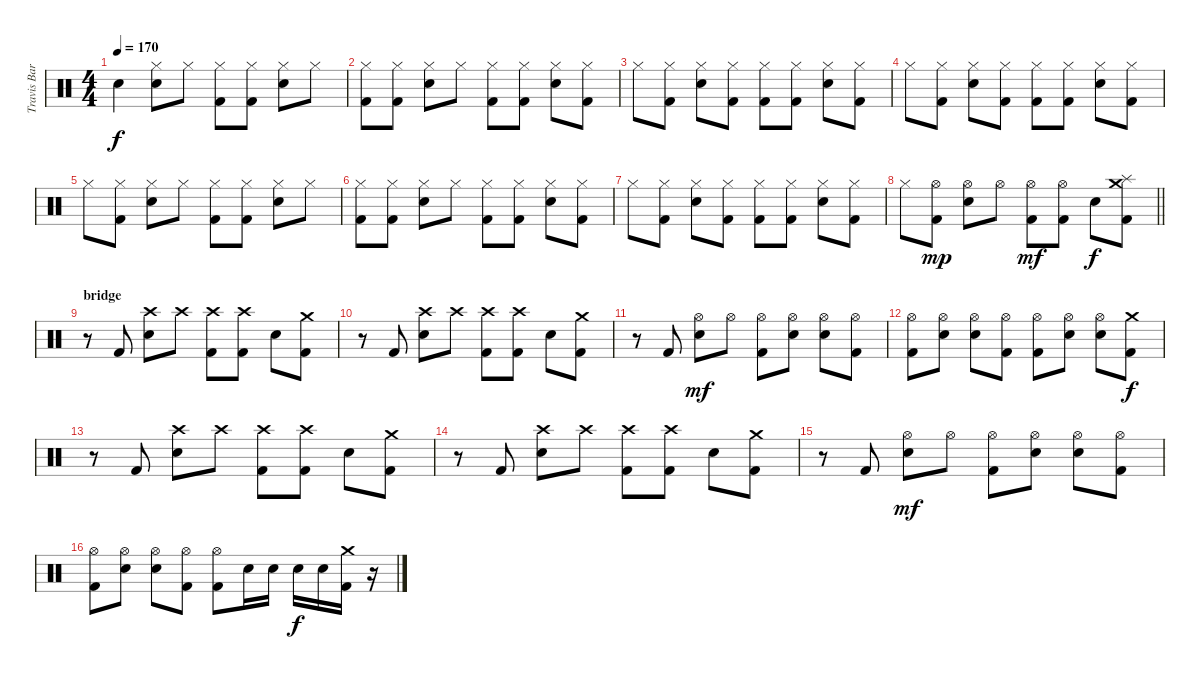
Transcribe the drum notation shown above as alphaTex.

\track ("Travis Barker" "Travis Bar") {instrument percussion}
\staff {score}
\articulation defaults
\ts (4 4)
\tempo 170
\clef neutral
\ks c "Snare (hit)"{t}.4{dy f}
("Hi-Hat (closed)" "Electric Snare (hit)").8 "Hi-Hat (closed)".8 ("Hi-Hat (closed)" "Kick (hit) 2").8 ("Hi-Hat (closed)" "Kick (hit) 2").8 ("Hi-Hat (closed)" "Electric Snare (hit)").8 "Hi-Hat (closed)".8 |
("Hi-Hat (closed)" "Kick (hit) 2").8 ("Hi-Hat (closed)" "Kick (hit) 2").8 ("Hi-Hat (closed)" "Electric Snare (hit)").8 "Hi-Hat (closed)".8 ("Hi-Hat (closed)" "Kick (hit) 2").8 ("Hi-Hat (closed)" "Kick (hit) 2").8 ("Hi-Hat (closed)" "Electric Snare (hit)").8 ("Hi-Hat (closed)" "Kick (hit) 2").8 |
"Hi-Hat (closed)".8 ("Hi-Hat (closed)" "Kick (hit) 2").8 ("Hi-Hat (closed)" "Electric Snare (hit)").8 ("Hi-Hat (closed)" "Kick (hit) 2").8 ("Hi-Hat (closed)" "Kick (hit) 2").8 ("Hi-Hat (closed)" "Kick (hit) 2").8 ("Hi-Hat (closed)" "Electric Snare (hit)").8 ("Hi-Hat (closed)" "Kick (hit) 2").8 |
"Hi-Hat (closed)".8 ("Hi-Hat (closed)" "Kick (hit) 2").8 ("Hi-Hat (closed)" "Electric Snare (hit)").8 ("Hi-Hat (closed)" "Kick (hit) 2").8 ("Hi-Hat (closed)" "Kick (hit) 2").8 ("Hi-Hat (closed)" "Kick (hit) 2").8 ("Hi-Hat (closed)" "Electric Snare (hit)").8 ("Hi-Hat (closed)" "Kick (hit) 2").8 |
"Hi-Hat (closed)".8 ("Hi-Hat (closed)" "Kick (hit) 2").8 ("Hi-Hat (closed)" "Electric Snare (hit)").8 "Hi-Hat (closed)".8 ("Hi-Hat (closed)" "Kick (hit) 2").8 ("Hi-Hat (closed)" "Kick (hit) 2").8 ("Hi-Hat (closed)" "Electric Snare (hit)").8 "Hi-Hat (closed)".8 |
("Hi-Hat (closed)" "Kick (hit) 2").8 ("Hi-Hat (closed)" "Kick (hit) 2").8 ("Hi-Hat (closed)" "Electric Snare (hit)").8 "Hi-Hat (closed)".8 ("Hi-Hat (closed)" "Kick (hit) 2").8 ("Hi-Hat (closed)" "Kick (hit) 2").8 ("Hi-Hat (closed)" "Electric Snare (hit)").8 ("Hi-Hat (closed)" "Kick (hit) 2").8 |
"Hi-Hat (closed)".8 ("Hi-Hat (closed)" "Kick (hit) 2").8 ("Hi-Hat (closed)" "Electric Snare (hit)").8 ("Hi-Hat (closed)" "Kick (hit) 2").8 ("Hi-Hat (closed)" "Kick (hit) 2").8 ("Hi-Hat (closed)" "Kick (hit) 2").8 ("Hi-Hat (closed)" "Electric Snare (hit)").8 ("Hi-Hat (closed)" "Kick (hit) 2").8 |
\barLineRight lightlight "Hi-Hat (closed)".8
("Hi-Hat (open)" "Kick (hit) 2").8{dy mp} ("Hi-Hat (open)" "Electric Snare (hit)").8 "Hi-Hat (open)".8 ("Hi-Hat (open)" "Kick (hit) 2").8{dy mf} ("Hi-Hat (open)" "Kick (hit) 2").8 "Electric Snare (hit)".8{dy f} ("Crash medium (hit)" "Kick (hit) 2" "Splash (hit)").8 |
\section ("" "bridge")
r.8 "Kick (hit) 2".8 ("Crash high (hit)" "Electric Snare (hit)").8 "Crash high (hit)".8 ("Crash high (hit)" "Kick (hit) 2").8 ("Crash high (hit)" "Kick (hit) 2").8 "Electric Snare (hit)".8 ("Crash medium (hit)" "Kick (hit) 2").8 |
r.8 "Kick (hit) 2".8 ("Crash high (hit)" "Electric Snare (hit)").8 "Crash high (hit)".8 ("Crash high (hit)" "Kick (hit) 2").8 ("Crash high (hit)" "Kick (hit) 2").8 "Electric Snare (hit)".8 ("Crash medium (hit)" "Kick (hit) 2").8 |
r.8 "Kick (hit) 2".8 ("Hi-Hat (open)" "Electric Snare (hit)").8{dy mf} "Hi-Hat (open)".8 ("Hi-Hat (open)" "Kick (hit) 2").8 ("Hi-Hat (open)" "Electric Snare (hit)").8 ("Hi-Hat (open)" "Electric Snare (hit)").8 ("Hi-Hat (open)" "Kick (hit) 2").8 |
("Hi-Hat (open)" "Kick (hit) 2").8 ("Hi-Hat (open)" "Electric Snare (hit)").8 ("Hi-Hat (open)" "Electric Snare (hit)").8 ("Hi-Hat (open)" "Kick (hit) 2").8 ("Hi-Hat (open)" "Kick (hit) 2").8 ("Hi-Hat (open)" "Electric Snare (hit)").8 ("Hi-Hat (open)" "Electric Snare (hit)").8 ("Crash medium (hit)" "Kick (hit) 2").8{dy f} |
r.8 "Kick (hit) 2".8 ("Crash high (hit)" "Electric Snare (hit)").8 "Crash high (hit)".8 ("Crash high (hit)" "Kick (hit) 2").8 ("Crash high (hit)" "Kick (hit) 2").8 "Electric Snare (hit)".8 ("Crash medium (hit)" "Kick (hit) 2").8 |
r.8 "Kick (hit) 2".8 ("Crash high (hit)" "Electric Snare (hit)").8 "Crash high (hit)".8 ("Crash high (hit)" "Kick (hit) 2").8 ("Crash high (hit)" "Kick (hit) 2").8 "Electric Snare (hit)".8 ("Crash medium (hit)" "Kick (hit) 2").8 |
r.8 "Kick (hit) 2".8 ("Hi-Hat (open)" "Electric Snare (hit)").8{dy mf} "Hi-Hat (open)".8 ("Hi-Hat (open)" "Kick (hit) 2").8 ("Hi-Hat (open)" "Electric Snare (hit)").8 ("Hi-Hat (open)" "Electric Snare (hit)").8 ("Hi-Hat (open)" "Kick (hit) 2").8 |
("Hi-Hat (open)" "Kick (hit) 2").8 ("Hi-Hat (open)" "Electric Snare (hit)").8 ("Hi-Hat (open)" "Electric Snare (hit)").8 ("Hi-Hat (open)" "Kick (hit) 2").8 ("Hi-Hat (open)" "Kick (hit) 2").8 "Electric Snare (hit)".16 "Electric Snare (hit)".16 "Electric Snare (hit)".16{dy f} "Electric Snare (hit)".16 ("Crash medium (hit)" "Kick (hit) 2").16 r.16
